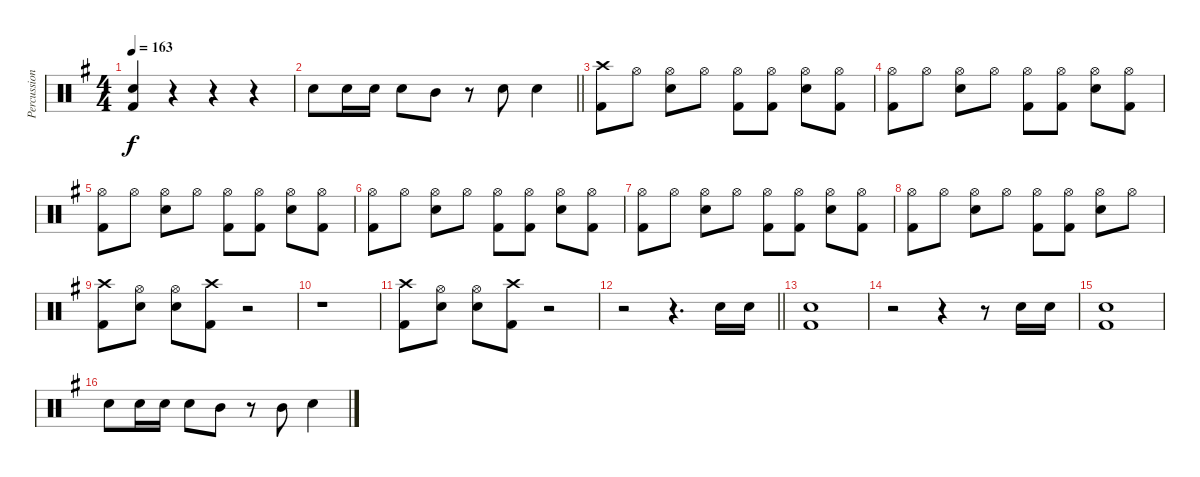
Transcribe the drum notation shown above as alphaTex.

\track ("Percussion" "Percussion") {instrument percussion}
\staff {score}
\articulation defaults
\ts (4 4)
\tempo 163
\clef neutral
\ks g
("Snare (hit) 2" "Kick (hit) 2").4{dy f} r.4 r.4 r.4 |
\barLineRight lightlight "Snare (hit) 2".8 "Snare (hit) 2".16 "Snare (hit) 2".16 "Snare (hit) 2".8 "Mid Tom (hit)".8
r.8 "Snare (hit) 2".8 "Snare (hit) 2".4 |
("Crash high (hit)" "Kick (hit) 2").8 "Hi-Hat (open)".8 ("Hi-Hat (open)" "Snare (hit) 2").8 "Hi-Hat (open)".8 ("Hi-Hat (open)" "Kick (hit) 2").8 ("Hi-Hat (open)" "Kick (hit) 2").8 ("Hi-Hat (open)" "Snare (hit) 2").8 ("Hi-Hat (open)" "Kick (hit) 2").8 |
("Hi-Hat (open)" "Kick (hit) 2").8 "Hi-Hat (open)".8 ("Hi-Hat (open)" "Snare (hit) 2").8 "Hi-Hat (open)".8 ("Hi-Hat (open)" "Kick (hit) 2").8 ("Hi-Hat (open)" "Kick (hit) 2").8 ("Hi-Hat (open)" "Snare (hit) 2").8 ("Hi-Hat (open)" "Kick (hit) 2").8 |
("Hi-Hat (open)" "Kick (hit) 2").8 "Hi-Hat (open)".8 ("Hi-Hat (open)" "Snare (hit) 2").8 "Hi-Hat (open)".8 ("Hi-Hat (open)" "Kick (hit) 2").8 ("Hi-Hat (open)" "Kick (hit) 2").8 ("Hi-Hat (open)" "Snare (hit) 2").8 ("Hi-Hat (open)" "Kick (hit) 2").8 |
("Hi-Hat (open)" "Kick (hit) 2").8 "Hi-Hat (open)".8 ("Hi-Hat (open)" "Snare (hit) 2").8 "Hi-Hat (open)".8 ("Hi-Hat (open)" "Kick (hit) 2").8 ("Hi-Hat (open)" "Kick (hit) 2").8 ("Hi-Hat (open)" "Snare (hit) 2").8 ("Hi-Hat (open)" "Kick (hit) 2").8 |
("Hi-Hat (open)" "Kick (hit) 2").8 "Hi-Hat (open)".8 ("Hi-Hat (open)" "Snare (hit) 2").8 "Hi-Hat (open)".8 ("Hi-Hat (open)" "Kick (hit) 2").8 ("Hi-Hat (open)" "Kick (hit) 2").8 ("Hi-Hat (open)" "Snare (hit) 2").8 ("Hi-Hat (open)" "Kick (hit) 2").8 |
("Hi-Hat (open)" "Kick (hit) 2").8 "Hi-Hat (open)".8 ("Hi-Hat (open)" "Snare (hit) 2").8 "Hi-Hat (open)".8 ("Hi-Hat (open)" "Kick (hit) 2").8 ("Hi-Hat (open)" "Kick (hit) 2").8 ("Hi-Hat (open)" "Snare (hit) 2").8 "Hi-Hat (open)".8 |
("Crash high (hit)" "Kick (hit) 2").8 ("Hi-Hat (open)" "Snare (hit) 2").8 ("Hi-Hat (open)" "Snare (hit) 2").8 ("Crash high (hit)" "Kick (hit) 2").8 r.2 |
r.1 |
("Crash high (hit)" "Kick (hit) 2").8 ("Hi-Hat (open)" "Snare (hit) 2").8 ("Hi-Hat (open)" "Snare (hit) 2").8 ("Crash high (hit)" "Kick (hit) 2").8 r.2 |
\barLineRight lightlight
r.2 r.4{d} "Snare (hit) 2".16 "Snare (hit) 2".16 |
("Snare (hit) 2" "Kick (hit) 2").1 |
r.2 r.4 r.8 "Snare (hit) 2".16 "Snare (hit) 2".16 |
("Snare (hit) 2" "Kick (hit) 2").1 |
"Snare (hit) 2".8 "Snare (hit) 2".16 "Snare (hit) 2".16 "Snare (hit) 2".8 "Mid Tom (hit)".8 r.8 "Mid Tom (hit)".8 "Snare (hit) 2".4
